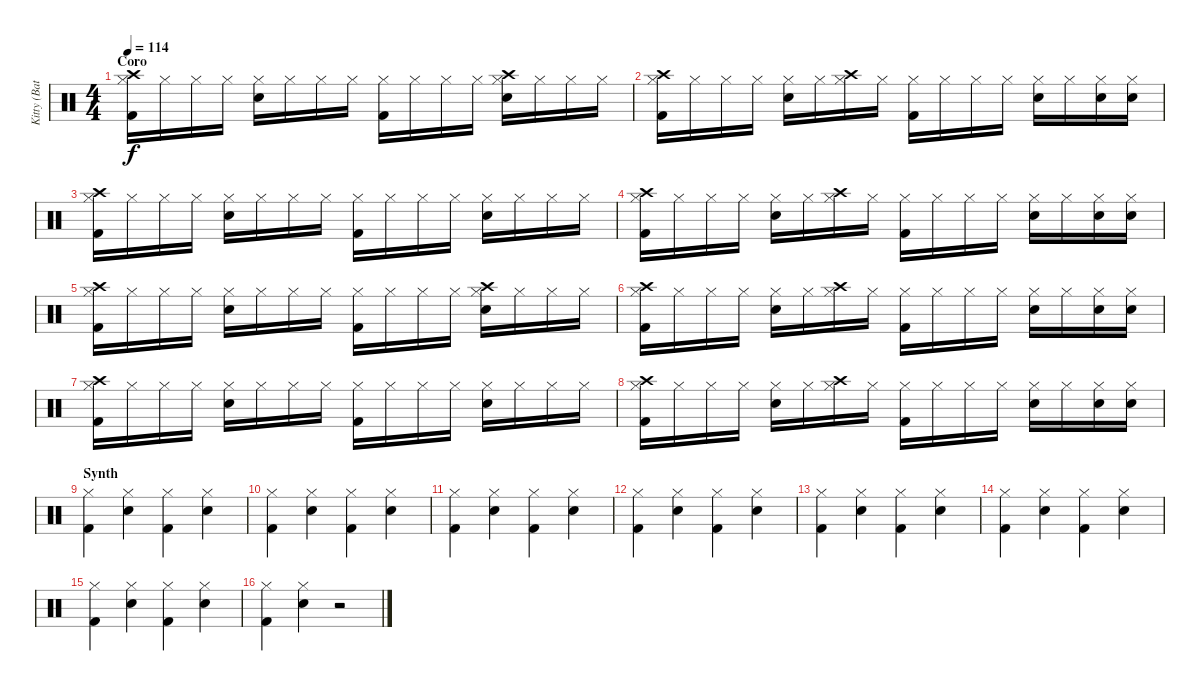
\track ("Kitty (Bataca)" "Kitty (Bat") {instrument percussion}
\staff {score}
\articulation defaults
\ts (4 4)
\section ("" "Coro")
\tempo 114
\clef neutral
\ks c
("Crash high (hit)" "Hi-Hat (closed)" "Kick (hit) 2").16{dy f} "Hi-Hat (closed)".16 "Hi-Hat (closed)".16 "Hi-Hat (closed)".16 ("Hi-Hat (closed)" "Snare (hit) 2").16 "Hi-Hat (closed)".16 "Hi-Hat (closed)".16 "Hi-Hat (closed)".16 ("Hi-Hat (closed)" "Kick (hit) 2").16 "Hi-Hat (closed)".16 "Hi-Hat (closed)".16 "Hi-Hat (closed)".16 ("Crash high (hit)" "Hi-Hat (closed)" "Snare (hit) 2").16 "Hi-Hat (closed)".16 "Hi-Hat (closed)".16 "Hi-Hat (closed)".16 |
("Crash high (hit)" "Hi-Hat (closed)" "Kick (hit) 2").16 "Hi-Hat (closed)".16 "Hi-Hat (closed)".16 "Hi-Hat (closed)".16 ("Hi-Hat (closed)" "Snare (hit) 2").16 "Hi-Hat (closed)".16 ("Crash high (hit)" "Hi-Hat (closed)").16 "Hi-Hat (closed)".16 ("Hi-Hat (closed)" "Kick (hit) 2").16 "Hi-Hat (closed)".16 "Hi-Hat (closed)".16 "Hi-Hat (closed)".16 ("Hi-Hat (closed)" "Snare (hit) 2").16 "Hi-Hat (closed)".16 ("Hi-Hat (closed)" "Snare (hit) 2").16 ("Hi-Hat (closed)" "Snare (hit) 2").16 |
("Crash high (hit)" "Hi-Hat (closed)" "Kick (hit) 2").16 "Hi-Hat (closed)".16 "Hi-Hat (closed)".16 "Hi-Hat (closed)".16 ("Hi-Hat (closed)" "Snare (hit) 2").16 "Hi-Hat (closed)".16 "Hi-Hat (closed)".16 "Hi-Hat (closed)".16 ("Hi-Hat (closed)" "Kick (hit) 2").16 "Hi-Hat (closed)".16 "Hi-Hat (closed)".16 "Hi-Hat (closed)".16 ("Hi-Hat (closed)" "Snare (hit) 2").16 "Hi-Hat (closed)".16 "Hi-Hat (closed)".16 "Hi-Hat (closed)".16 |
("Crash high (hit)" "Hi-Hat (closed)" "Kick (hit) 2").16 "Hi-Hat (closed)".16 "Hi-Hat (closed)".16 "Hi-Hat (closed)".16 ("Hi-Hat (closed)" "Snare (hit) 2").16 "Hi-Hat (closed)".16 ("Crash high (hit)" "Hi-Hat (closed)").16 "Hi-Hat (closed)".16 ("Hi-Hat (closed)" "Kick (hit) 2").16 "Hi-Hat (closed)".16 "Hi-Hat (closed)".16 "Hi-Hat (closed)".16 ("Hi-Hat (closed)" "Snare (hit) 2").16 "Hi-Hat (closed)".16 ("Hi-Hat (closed)" "Snare (hit) 2").16 ("Hi-Hat (closed)" "Snare (hit) 2").16 |
("Crash high (hit)" "Hi-Hat (closed)" "Kick (hit) 2").16 "Hi-Hat (closed)".16 "Hi-Hat (closed)".16 "Hi-Hat (closed)".16 ("Hi-Hat (closed)" "Snare (hit) 2").16 "Hi-Hat (closed)".16 "Hi-Hat (closed)".16 "Hi-Hat (closed)".16 ("Hi-Hat (closed)" "Kick (hit) 2").16 "Hi-Hat (closed)".16 "Hi-Hat (closed)".16 "Hi-Hat (closed)".16 ("Crash high (hit)" "Hi-Hat (closed)" "Snare (hit) 2").16 "Hi-Hat (closed)".16 "Hi-Hat (closed)".16 "Hi-Hat (closed)".16 |
("Crash high (hit)" "Hi-Hat (closed)" "Kick (hit) 2").16 "Hi-Hat (closed)".16 "Hi-Hat (closed)".16 "Hi-Hat (closed)".16 ("Hi-Hat (closed)" "Snare (hit) 2").16 "Hi-Hat (closed)".16 ("Crash high (hit)" "Hi-Hat (closed)").16 "Hi-Hat (closed)".16 ("Hi-Hat (closed)" "Kick (hit) 2").16 "Hi-Hat (closed)".16 "Hi-Hat (closed)".16 "Hi-Hat (closed)".16 ("Hi-Hat (closed)" "Snare (hit) 2").16 "Hi-Hat (closed)".16 ("Hi-Hat (closed)" "Snare (hit) 2").16 ("Hi-Hat (closed)" "Snare (hit) 2").16 |
("Crash high (hit)" "Hi-Hat (closed)" "Kick (hit) 2").16 "Hi-Hat (closed)".16 "Hi-Hat (closed)".16 "Hi-Hat (closed)".16 ("Hi-Hat (closed)" "Snare (hit) 2").16 "Hi-Hat (closed)".16 "Hi-Hat (closed)".16 "Hi-Hat (closed)".16 ("Hi-Hat (closed)" "Kick (hit) 2").16 "Hi-Hat (closed)".16 "Hi-Hat (closed)".16 "Hi-Hat (closed)".16 ("Hi-Hat (closed)" "Snare (hit) 2").16 "Hi-Hat (closed)".16 "Hi-Hat (closed)".16 "Hi-Hat (closed)".16 |
("Crash high (hit)" "Hi-Hat (closed)" "Kick (hit) 2").16 "Hi-Hat (closed)".16 "Hi-Hat (closed)".16 "Hi-Hat (closed)".16 ("Hi-Hat (closed)" "Snare (hit) 2").16 "Hi-Hat (closed)".16 ("Crash high (hit)" "Hi-Hat (closed)").16 "Hi-Hat (closed)".16 ("Hi-Hat (closed)" "Kick (hit) 2").16 "Hi-Hat (closed)".16 "Hi-Hat (closed)".16 "Hi-Hat (closed)".16 ("Hi-Hat (closed)" "Snare (hit) 2").16 "Hi-Hat (closed)".16 ("Hi-Hat (closed)" "Snare (hit) 2").16 ("Hi-Hat (closed)" "Snare (hit) 2").16 |
\section ("" "Synth")
("Hi-Hat (closed)" "Kick (hit) 2").4 ("Hi-Hat (closed)" "Snare (hit) 2").4 ("Hi-Hat (closed)" "Kick (hit) 2").4 ("Hi-Hat (closed)" "Snare (hit) 2").4 |
("Hi-Hat (closed)" "Kick (hit) 2").4 ("Hi-Hat (closed)" "Snare (hit) 2").4 ("Hi-Hat (closed)" "Kick (hit) 2").4 ("Hi-Hat (closed)" "Snare (hit) 2").4 |
("Hi-Hat (closed)" "Kick (hit) 2").4 ("Hi-Hat (closed)" "Snare (hit) 2").4 ("Hi-Hat (closed)" "Kick (hit) 2").4 ("Hi-Hat (closed)" "Snare (hit) 2").4 |
("Hi-Hat (closed)" "Kick (hit) 2").4 ("Hi-Hat (closed)" "Snare (hit) 2").4 ("Hi-Hat (closed)" "Kick (hit) 2").4 ("Hi-Hat (closed)" "Snare (hit) 2").4 |
("Hi-Hat (closed)" "Kick (hit) 2").4 ("Hi-Hat (closed)" "Snare (hit) 2").4 ("Hi-Hat (closed)" "Kick (hit) 2").4 ("Hi-Hat (closed)" "Snare (hit) 2").4 |
("Hi-Hat (closed)" "Kick (hit) 2").4 ("Hi-Hat (closed)" "Snare (hit) 2").4 ("Hi-Hat (closed)" "Kick (hit) 2").4 ("Hi-Hat (closed)" "Snare (hit) 2").4 |
("Hi-Hat (closed)" "Kick (hit) 2").4 ("Hi-Hat (closed)" "Snare (hit) 2").4 ("Hi-Hat (closed)" "Kick (hit) 2").4 ("Hi-Hat (closed)" "Snare (hit) 2").4 |
("Hi-Hat (closed)" "Kick (hit) 2").4 ("Hi-Hat (closed)" "Snare (hit) 2").4 r.2
